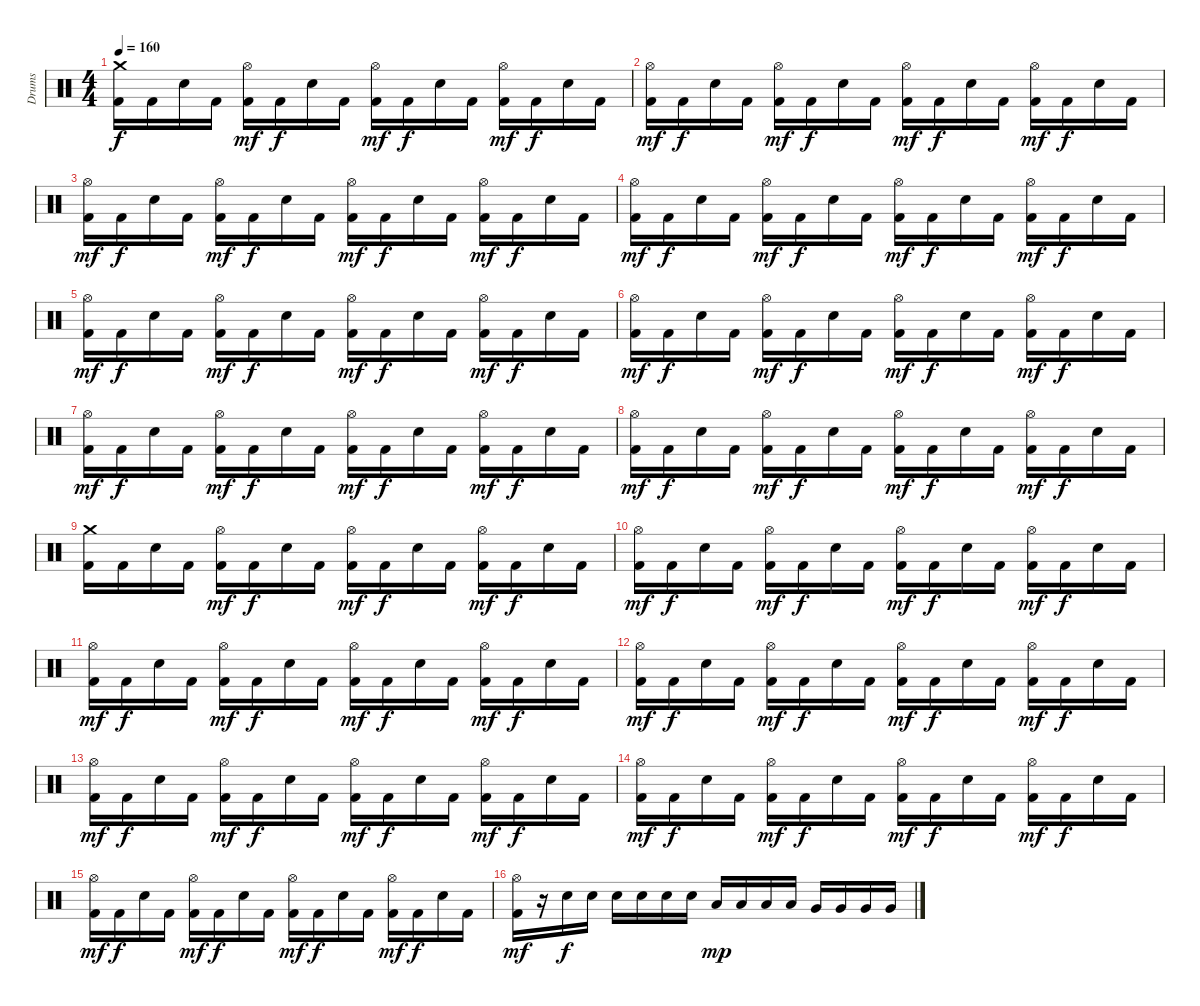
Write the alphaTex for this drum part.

\track ("Drums" "Drums") {instrument percussion}
\staff {score}
\articulation defaults
\ts (4 4)
\tempo 160
\clef neutral
\ks c
("Crash medium (hit)" "Kick (hit) 2").16{dy f} "Kick (hit) 2".16 "Snare (hit) 2".16 "Kick (hit) 2".16 ("Hi-Hat (open)" "Kick (hit) 2").16{dy mf} "Kick (hit) 2".16{dy f} "Snare (hit) 2".16 "Kick (hit) 2".16 ("Hi-Hat (open)" "Kick (hit) 2").16{dy mf} "Kick (hit) 2".16{dy f} "Snare (hit) 2".16 "Kick (hit) 2".16 ("Hi-Hat (open)" "Kick (hit) 2").16{dy mf} "Kick (hit) 2".16{dy f} "Snare (hit) 2".16 "Kick (hit) 2".16 |
("Hi-Hat (open)" "Kick (hit) 2").16{dy mf} "Kick (hit) 2".16{dy f} "Snare (hit) 2".16 "Kick (hit) 2".16 ("Hi-Hat (open)" "Kick (hit) 2").16{dy mf} "Kick (hit) 2".16{dy f} "Snare (hit) 2".16 "Kick (hit) 2".16 ("Hi-Hat (open)" "Kick (hit) 2").16{dy mf} "Kick (hit) 2".16{dy f} "Snare (hit) 2".16 "Kick (hit) 2".16 ("Hi-Hat (open)" "Kick (hit) 2").16{dy mf} "Kick (hit) 2".16{dy f} "Snare (hit) 2".16 "Kick (hit) 2".16 |
("Hi-Hat (open)" "Kick (hit) 2").16{dy mf} "Kick (hit) 2".16{dy f} "Snare (hit) 2".16 "Kick (hit) 2".16 ("Hi-Hat (open)" "Kick (hit) 2").16{dy mf} "Kick (hit) 2".16{dy f} "Snare (hit) 2".16 "Kick (hit) 2".16 ("Hi-Hat (open)" "Kick (hit) 2").16{dy mf} "Kick (hit) 2".16{dy f} "Snare (hit) 2".16 "Kick (hit) 2".16 ("Hi-Hat (open)" "Kick (hit) 2").16{dy mf} "Kick (hit) 2".16{dy f} "Snare (hit) 2".16 "Kick (hit) 2".16 |
("Hi-Hat (open)" "Kick (hit) 2").16{dy mf} "Kick (hit) 2".16{dy f} "Snare (hit) 2".16 "Kick (hit) 2".16 ("Hi-Hat (open)" "Kick (hit) 2").16{dy mf} "Kick (hit) 2".16{dy f} "Snare (hit) 2".16 "Kick (hit) 2".16 ("Hi-Hat (open)" "Kick (hit) 2").16{dy mf} "Kick (hit) 2".16{dy f} "Snare (hit) 2".16 "Kick (hit) 2".16 ("Hi-Hat (open)" "Kick (hit) 2").16{dy mf} "Kick (hit) 2".16{dy f} "Snare (hit) 2".16 "Kick (hit) 2".16 |
("Hi-Hat (open)" "Kick (hit) 2").16{dy mf} "Kick (hit) 2".16{dy f} "Snare (hit) 2".16 "Kick (hit) 2".16 ("Hi-Hat (open)" "Kick (hit) 2").16{dy mf} "Kick (hit) 2".16{dy f} "Snare (hit) 2".16 "Kick (hit) 2".16 ("Hi-Hat (open)" "Kick (hit) 2").16{dy mf} "Kick (hit) 2".16{dy f} "Snare (hit) 2".16 "Kick (hit) 2".16 ("Hi-Hat (open)" "Kick (hit) 2").16{dy mf} "Kick (hit) 2".16{dy f} "Snare (hit) 2".16 "Kick (hit) 2".16 |
("Hi-Hat (open)" "Kick (hit) 2").16{dy mf} "Kick (hit) 2".16{dy f} "Snare (hit) 2".16 "Kick (hit) 2".16 ("Hi-Hat (open)" "Kick (hit) 2").16{dy mf} "Kick (hit) 2".16{dy f} "Snare (hit) 2".16 "Kick (hit) 2".16 ("Hi-Hat (open)" "Kick (hit) 2").16{dy mf} "Kick (hit) 2".16{dy f} "Snare (hit) 2".16 "Kick (hit) 2".16 ("Hi-Hat (open)" "Kick (hit) 2").16{dy mf} "Kick (hit) 2".16{dy f} "Snare (hit) 2".16 "Kick (hit) 2".16 |
("Hi-Hat (open)" "Kick (hit) 2").16{dy mf} "Kick (hit) 2".16{dy f} "Snare (hit) 2".16 "Kick (hit) 2".16 ("Hi-Hat (open)" "Kick (hit) 2").16{dy mf} "Kick (hit) 2".16{dy f} "Snare (hit) 2".16 "Kick (hit) 2".16 ("Hi-Hat (open)" "Kick (hit) 2").16{dy mf} "Kick (hit) 2".16{dy f} "Snare (hit) 2".16 "Kick (hit) 2".16 ("Hi-Hat (open)" "Kick (hit) 2").16{dy mf} "Kick (hit) 2".16{dy f} "Snare (hit) 2".16 "Kick (hit) 2".16 |
("Hi-Hat (open)" "Kick (hit) 2").16{dy mf} "Kick (hit) 2".16{dy f} "Snare (hit) 2".16 "Kick (hit) 2".16 ("Hi-Hat (open)" "Kick (hit) 2").16{dy mf} "Kick (hit) 2".16{dy f} "Snare (hit) 2".16 "Kick (hit) 2".16 ("Hi-Hat (open)" "Kick (hit) 2").16{dy mf} "Kick (hit) 2".16{dy f} "Snare (hit) 2".16 "Kick (hit) 2".16 ("Hi-Hat (open)" "Kick (hit) 2").16{dy mf} "Kick (hit) 2".16{dy f} "Snare (hit) 2".16 "Kick (hit) 2".16 |
("Crash medium (hit)" "Kick (hit) 2").16 "Kick (hit) 2".16 "Snare (hit) 2".16 "Kick (hit) 2".16 ("Hi-Hat (open)" "Kick (hit) 2").16{dy mf} "Kick (hit) 2".16{dy f} "Snare (hit) 2".16 "Kick (hit) 2".16 ("Hi-Hat (open)" "Kick (hit) 2").16{dy mf} "Kick (hit) 2".16{dy f} "Snare (hit) 2".16 "Kick (hit) 2".16 ("Hi-Hat (open)" "Kick (hit) 2").16{dy mf} "Kick (hit) 2".16{dy f} "Snare (hit) 2".16 "Kick (hit) 2".16 |
("Hi-Hat (open)" "Kick (hit) 2").16{dy mf} "Kick (hit) 2".16{dy f} "Snare (hit) 2".16 "Kick (hit) 2".16 ("Hi-Hat (open)" "Kick (hit) 2").16{dy mf} "Kick (hit) 2".16{dy f} "Snare (hit) 2".16 "Kick (hit) 2".16 ("Hi-Hat (open)" "Kick (hit) 2").16{dy mf} "Kick (hit) 2".16{dy f} "Snare (hit) 2".16 "Kick (hit) 2".16 ("Hi-Hat (open)" "Kick (hit) 2").16{dy mf} "Kick (hit) 2".16{dy f} "Snare (hit) 2".16 "Kick (hit) 2".16 |
("Hi-Hat (open)" "Kick (hit) 2").16{dy mf} "Kick (hit) 2".16{dy f} "Snare (hit) 2".16 "Kick (hit) 2".16 ("Hi-Hat (open)" "Kick (hit) 2").16{dy mf} "Kick (hit) 2".16{dy f} "Snare (hit) 2".16 "Kick (hit) 2".16 ("Hi-Hat (open)" "Kick (hit) 2").16{dy mf} "Kick (hit) 2".16{dy f} "Snare (hit) 2".16 "Kick (hit) 2".16 ("Hi-Hat (open)" "Kick (hit) 2").16{dy mf} "Kick (hit) 2".16{dy f} "Snare (hit) 2".16 "Kick (hit) 2".16 |
("Hi-Hat (open)" "Kick (hit) 2").16{dy mf} "Kick (hit) 2".16{dy f} "Snare (hit) 2".16 "Kick (hit) 2".16 ("Hi-Hat (open)" "Kick (hit) 2").16{dy mf} "Kick (hit) 2".16{dy f} "Snare (hit) 2".16 "Kick (hit) 2".16 ("Hi-Hat (open)" "Kick (hit) 2").16{dy mf} "Kick (hit) 2".16{dy f} "Snare (hit) 2".16 "Kick (hit) 2".16 ("Hi-Hat (open)" "Kick (hit) 2").16{dy mf} "Kick (hit) 2".16{dy f} "Snare (hit) 2".16 "Kick (hit) 2".16 |
("Hi-Hat (open)" "Kick (hit) 2").16{dy mf} "Kick (hit) 2".16{dy f} "Snare (hit) 2".16 "Kick (hit) 2".16 ("Hi-Hat (open)" "Kick (hit) 2").16{dy mf} "Kick (hit) 2".16{dy f} "Snare (hit) 2".16 "Kick (hit) 2".16 ("Hi-Hat (open)" "Kick (hit) 2").16{dy mf} "Kick (hit) 2".16{dy f} "Snare (hit) 2".16 "Kick (hit) 2".16 ("Hi-Hat (open)" "Kick (hit) 2").16{dy mf} "Kick (hit) 2".16{dy f} "Snare (hit) 2".16 "Kick (hit) 2".16 |
("Hi-Hat (open)" "Kick (hit) 2").16{dy mf} "Kick (hit) 2".16{dy f} "Snare (hit) 2".16 "Kick (hit) 2".16 ("Hi-Hat (open)" "Kick (hit) 2").16{dy mf} "Kick (hit) 2".16{dy f} "Snare (hit) 2".16 "Kick (hit) 2".16 ("Hi-Hat (open)" "Kick (hit) 2").16{dy mf} "Kick (hit) 2".16{dy f} "Snare (hit) 2".16 "Kick (hit) 2".16 ("Hi-Hat (open)" "Kick (hit) 2").16{dy mf} "Kick (hit) 2".16{dy f} "Snare (hit) 2".16 "Kick (hit) 2".16 |
("Hi-Hat (open)" "Kick (hit) 2").16{dy mf} "Kick (hit) 2".16{dy f} "Snare (hit) 2".16 "Kick (hit) 2".16 ("Hi-Hat (open)" "Kick (hit) 2").16{dy mf} "Kick (hit) 2".16{dy f} "Snare (hit) 2".16 "Kick (hit) 2".16 ("Hi-Hat (open)" "Kick (hit) 2").16{dy mf} "Kick (hit) 2".16{dy f} "Snare (hit) 2".16 "Kick (hit) 2".16 ("Hi-Hat (open)" "Kick (hit) 2").16{dy mf} "Kick (hit) 2".16{dy f} "Snare (hit) 2".16 "Kick (hit) 2".16 |
("Hi-Hat (open)" "Kick (hit) 2").16{dy mf} r.16 "Snare (hit) 2".16{dy f} "Snare (hit) 2".16 "Snare (hit) 2".16 "Snare (hit) 2".16 "Snare (hit) 2".16 "Snare (hit) 2".16 "Low Tom (hit)".16{dy mp} "Low Tom (hit)".16 "Low Tom (hit)".16 "Low Tom (hit)".16 "Very Low Tom (hit)".16 "Very Low Tom (hit)".16 "Very Low Tom (hit)".16 "Very Low Tom (hit)".16
